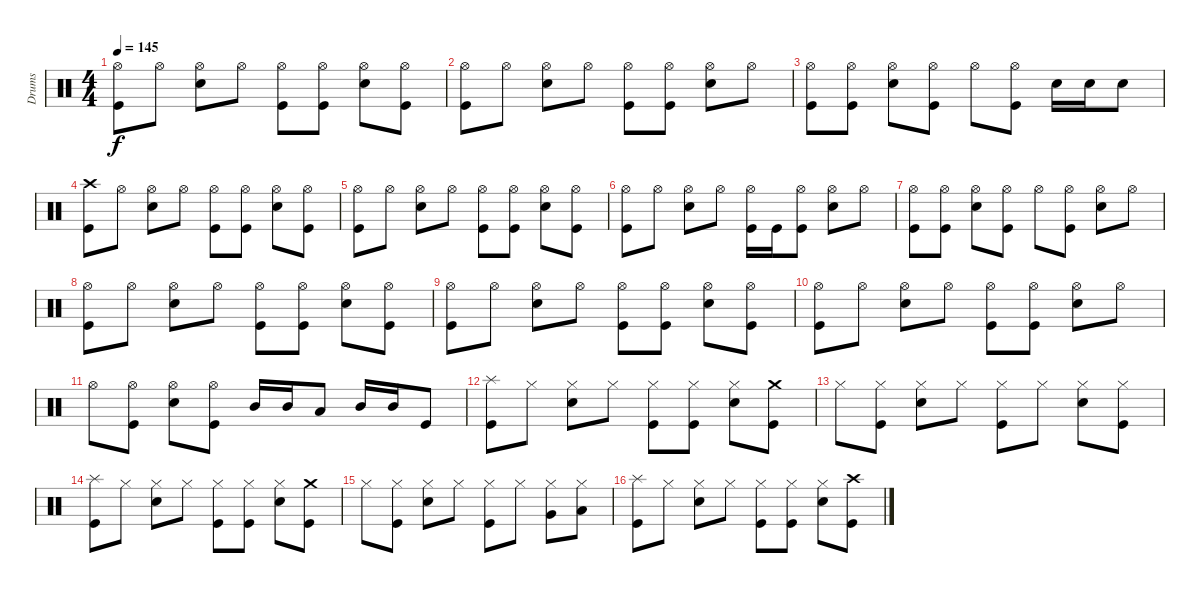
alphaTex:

\track ("Drums" "Drums") {instrument percussion}
\staff {score}
\articulation defaults
\ts (4 4)
\tempo 145
\clef neutral
\ks c
("Hi-Hat (open)" "Kick (hit)").8{dy f} "Hi-Hat (open)".8 ("Hi-Hat (open)" "Snare (hit) 2").8 "Hi-Hat (open)".8 ("Hi-Hat (open)" "Kick (hit)").8 ("Hi-Hat (open)" "Kick (hit)").8 ("Hi-Hat (open)" "Snare (hit) 2").8 ("Hi-Hat (open)" "Kick (hit)").8 |
("Hi-Hat (open)" "Kick (hit)").8 "Hi-Hat (open)".8 ("Hi-Hat (open)" "Snare (hit) 2").8 "Hi-Hat (open)".8 ("Hi-Hat (open)" "Kick (hit)").8 ("Hi-Hat (open)" "Kick (hit)").8 ("Hi-Hat (open)" "Snare (hit) 2").8 "Hi-Hat (open)".8 |
("Hi-Hat (open)" "Kick (hit)").8 ("Hi-Hat (open)" "Kick (hit)").8 ("Hi-Hat (open)" "Snare (hit) 2").8 ("Hi-Hat (open)" "Kick (hit)").8 "Hi-Hat (open)".8 ("Hi-Hat (open)" "Kick (hit)").8 "Snare (hit) 2".16 "Snare (hit) 2".16 "Snare (hit) 2".8 |
("Crash high (hit)" "Kick (hit)").8 "Hi-Hat (open)".8 ("Hi-Hat (open)" "Snare (hit) 2").8 "Hi-Hat (open)".8 ("Hi-Hat (open)" "Kick (hit)").8 ("Hi-Hat (open)" "Kick (hit)").8 ("Hi-Hat (open)" "Snare (hit) 2").8 ("Hi-Hat (open)" "Kick (hit)").8 |
("Hi-Hat (open)" "Kick (hit)").8 "Hi-Hat (open)".8 ("Hi-Hat (open)" "Snare (hit) 2").8 "Hi-Hat (open)".8 ("Hi-Hat (open)" "Kick (hit)").8 ("Hi-Hat (open)" "Kick (hit)").8 ("Hi-Hat (open)" "Snare (hit) 2").8 ("Hi-Hat (open)" "Kick (hit)").8 |
("Hi-Hat (open)" "Kick (hit)").8 "Hi-Hat (open)".8 ("Hi-Hat (open)" "Snare (hit) 2").8 "Hi-Hat (open)".8 ("Hi-Hat (open)" "Kick (hit)").16 "Kick (hit)".16 ("Hi-Hat (open)" "Kick (hit)").8 ("Hi-Hat (open)" "Snare (hit) 2").8 "Hi-Hat (open)".8 |
("Hi-Hat (open)" "Kick (hit)").8 ("Hi-Hat (open)" "Kick (hit)").8 ("Hi-Hat (open)" "Snare (hit) 2").8 ("Hi-Hat (open)" "Kick (hit)").8 "Hi-Hat (open)".8 ("Hi-Hat (open)" "Kick (hit)").8 ("Hi-Hat (open)" "Snare (hit) 2").8 "Hi-Hat (open)".8 |
("Hi-Hat (open)" "Kick (hit)").8 "Hi-Hat (open)".8 ("Hi-Hat (open)" "Snare (hit) 2").8 "Hi-Hat (open)".8 ("Hi-Hat (open)" "Kick (hit)").8 ("Hi-Hat (open)" "Kick (hit)").8 ("Hi-Hat (open)" "Snare (hit) 2").8 ("Hi-Hat (open)" "Kick (hit)").8 |
("Hi-Hat (open)" "Kick (hit)").8 "Hi-Hat (open)".8 ("Hi-Hat (open)" "Snare (hit) 2").8 "Hi-Hat (open)".8 ("Hi-Hat (open)" "Kick (hit)").8 ("Hi-Hat (open)" "Kick (hit)").8 ("Hi-Hat (open)" "Snare (hit) 2").8 ("Hi-Hat (open)" "Kick (hit)").8 |
("Hi-Hat (open)" "Kick (hit)").8 "Hi-Hat (open)".8 ("Hi-Hat (open)" "Snare (hit) 2").8 "Hi-Hat (open)".8 ("Hi-Hat (open)" "Kick (hit)").8 ("Hi-Hat (open)" "Kick (hit)").8 ("Hi-Hat (open)" "Snare (hit) 2").8 "Hi-Hat (open)".8 |
"Hi-Hat (open)".8 ("Hi-Hat (open)" "Kick (hit)").8 ("Hi-Hat (open)" "Snare (hit) 2").8 ("Hi-Hat (open)" "Kick (hit)").8 "Mid Tom (hit)".16 "Mid Tom (hit)".16 "Low Tom (hit)".8 "Mid Tom (hit)".16 "Mid Tom (hit)".16 "Kick (hit)".8 |
("Splash (hit)" "Kick (hit)").8 "Hi-Hat (closed)".8 ("Hi-Hat (closed)" "Snare (hit) 2").8 "Hi-Hat (closed)".8 ("Hi-Hat (closed)" "Kick (hit)").8 ("Hi-Hat (closed)" "Kick (hit)").8 ("Hi-Hat (closed)" "Snare (hit) 2").8 ("Crash medium (hit)" "Kick (hit)").8 |
"Hi-Hat (closed)".8 ("Hi-Hat (closed)" "Kick (hit)").8 ("Hi-Hat (closed)" "Snare (hit) 2").8 "Hi-Hat (closed)".8 ("Hi-Hat (closed)" "Kick (hit)").8 "Hi-Hat (closed)".8 ("Hi-Hat (closed)" "Snare (hit) 2").8 ("Hi-Hat (closed)" "Kick (hit)").8 |
("Splash (hit)" "Kick (hit)").8 "Hi-Hat (closed)".8 ("Hi-Hat (closed)" "Snare (hit) 2").8 "Hi-Hat (closed)".8 ("Hi-Hat (closed)" "Kick (hit)").8 ("Hi-Hat (closed)" "Kick (hit)").8 ("Hi-Hat (closed)" "Snare (hit) 2").8 ("Crash medium (hit)" "Kick (hit)").8 |
"Hi-Hat (closed)".8 ("Hi-Hat (closed)" "Kick (hit)").8 ("Hi-Hat (closed)" "Snare (hit) 2").8 "Hi-Hat (closed)".8 ("Hi-Hat (closed)" "Kick (hit)").8 "Hi-Hat (closed)".8 ("Hi-Hat (closed)" "Very Low Tom (hit)").8 ("Hi-Hat (closed)" "Low Floor Tom (hit)").8 |
("Splash (hit)" "Kick (hit)").8 "Hi-Hat (closed)".8 ("Hi-Hat (closed)" "Snare (hit) 2").8 "Hi-Hat (closed)".8 ("Hi-Hat (closed)" "Kick (hit)").8 ("Hi-Hat (closed)" "Kick (hit)").8 ("Hi-Hat (closed)" "Snare (hit) 2").8 ("Crash high (hit)" "Kick (hit)").8
